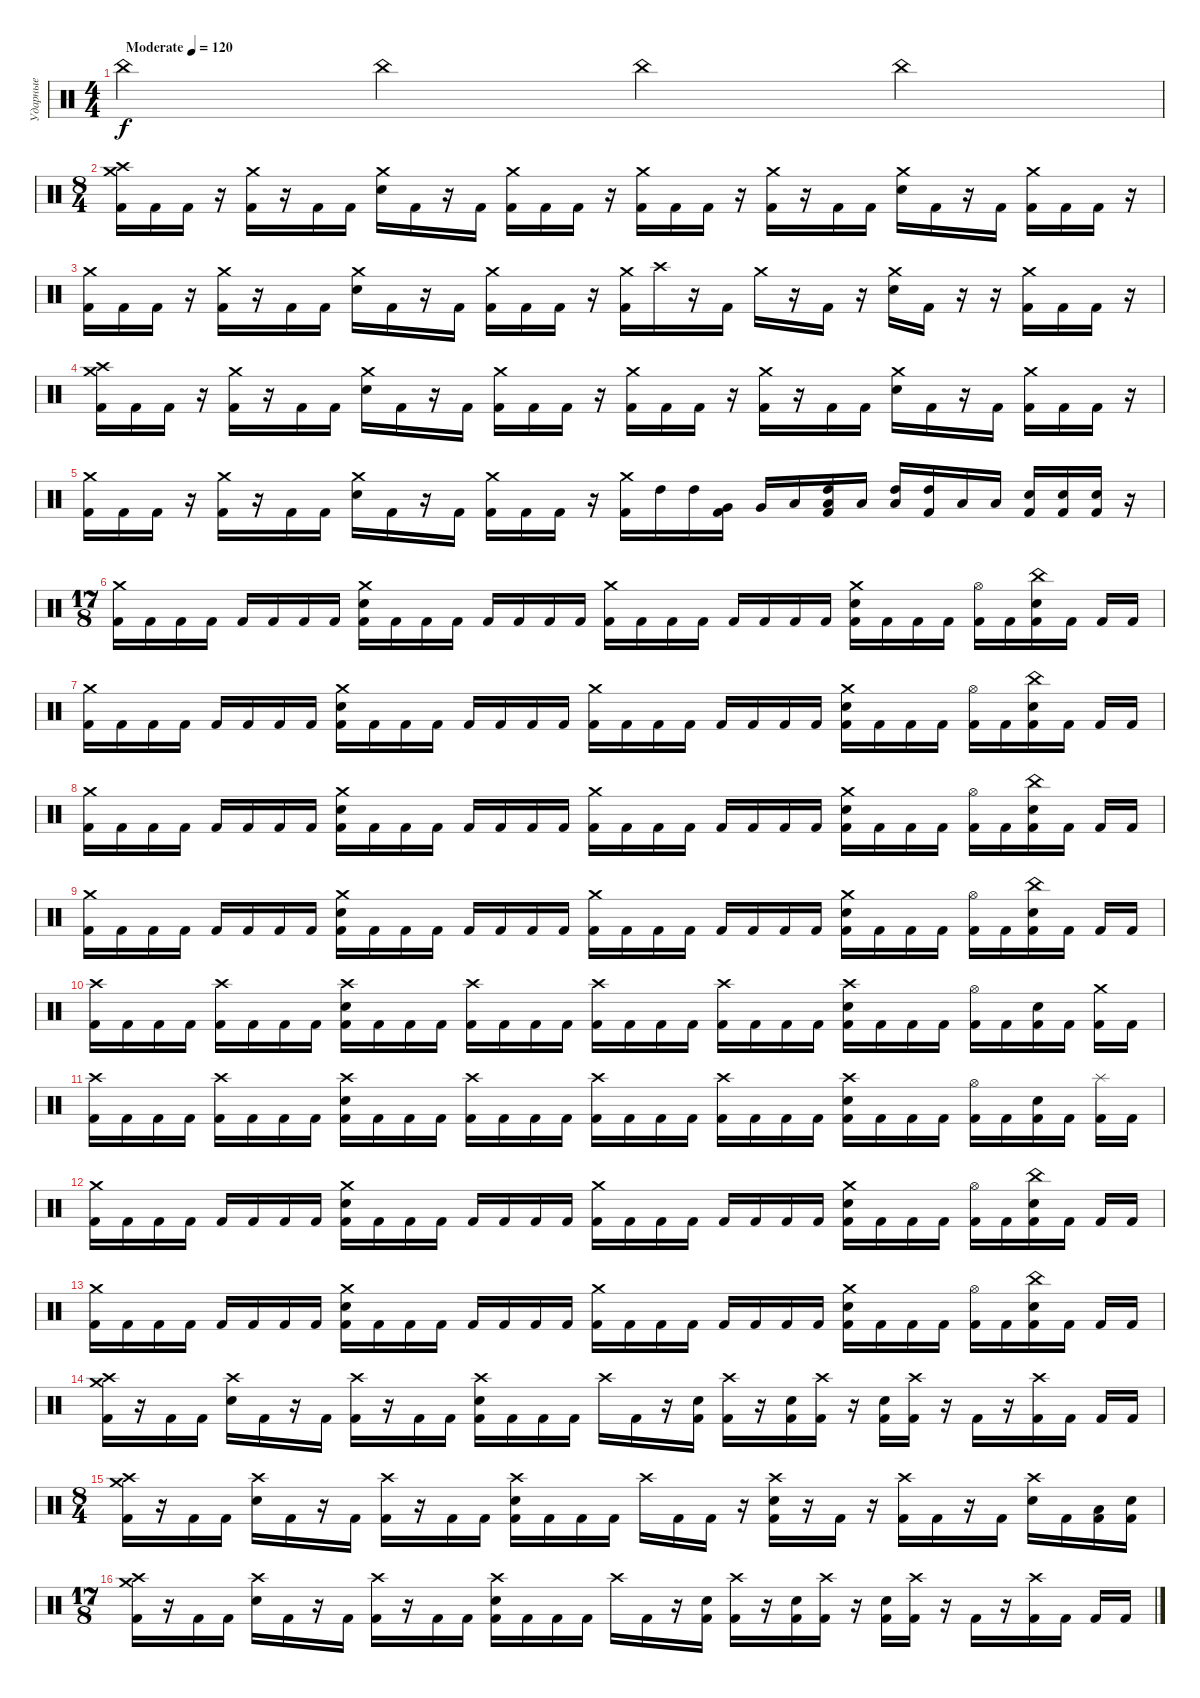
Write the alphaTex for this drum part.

\track ("Ударные" "Ударные") {instrument percussion}
\staff {score}
\articulation defaults
\ts (4 4)
\tempo (120 "Moderate")
\clef neutral
\ks c "China (hit)".4{dy f} "China (hit)".4 "China (hit)".4 "China (hit)".4
|
\ts (8 4)
("Crash medium (hit)" "Crash high (hit)" "Kick (hit) 2").16 "Kick (hit) 2".16 "Kick (hit) 2".16 r.16 ("Crash medium (hit)" "Kick (hit) 2").16 r.16 "Kick (hit) 2".16 "Kick (hit) 2".16 ("Crash medium (hit)" "Electric Snare (hit)").16 "Kick (hit) 2".16 r.16 "Kick (hit) 2".16 ("Crash medium (hit)" "Kick (hit) 2").16 "Kick (hit) 2".16 "Kick (hit) 2".16 r.16 ("Crash medium (hit)" "Kick (hit) 2").16 "Kick (hit) 2".16 "Kick (hit) 2".16 r.16 ("Crash medium (hit)" "Kick (hit) 2").16 r.16 "Kick (hit) 2".16 "Kick (hit) 2".16 ("Crash medium (hit)" "Electric Snare (hit)").16 "Kick (hit) 2".16 r.16 "Kick (hit) 2".16 ("Crash medium (hit)" "Kick (hit) 2").16 "Kick (hit) 2".16 "Kick (hit) 2".16 r.16 |
("Crash medium (hit)" "Kick (hit) 2").16 "Kick (hit) 2".16 "Kick (hit) 2".16 r.16 ("Crash medium (hit)" "Kick (hit) 2").16 r.16 "Kick (hit) 2".16 "Kick (hit) 2".16 ("Crash medium (hit)" "Electric Snare (hit)").16 "Kick (hit) 2".16 r.16 "Kick (hit) 2".16 ("Crash medium (hit)" "Kick (hit) 2").16 "Kick (hit) 2".16 "Kick (hit) 2".16 r.16 ("Crash medium (hit)" "Kick (hit) 2").16 "Crash high (hit)".16 r.16 "Kick (hit) 2".16 "Crash medium (hit)".16 r.16 "Kick (hit) 2".16 r.16 ("Crash medium (hit)" "Electric Snare (hit)").16 "Kick (hit) 2".16 r.16 r.16 ("Crash medium (hit)" "Kick (hit) 2").16 "Kick (hit) 2".16 "Kick (hit) 2".16 r.16 |
("Crash medium (hit)" "Crash high (hit)" "Kick (hit) 2").16 "Kick (hit) 2".16 "Kick (hit) 2".16 r.16 ("Crash medium (hit)" "Kick (hit) 2").16 r.16 "Kick (hit) 2".16 "Kick (hit) 2".16 ("Crash medium (hit)" "Electric Snare (hit)").16 "Kick (hit) 2".16 r.16 "Kick (hit) 2".16 ("Crash medium (hit)" "Kick (hit) 2").16 "Kick (hit) 2".16 "Kick (hit) 2".16 r.16 ("Crash medium (hit)" "Kick (hit) 2").16 "Kick (hit) 2".16 "Kick (hit) 2".16 r.16 ("Crash medium (hit)" "Kick (hit) 2").16 r.16 "Kick (hit) 2".16 "Kick (hit) 2".16 ("Crash medium (hit)" "Electric Snare (hit)").16 "Kick (hit) 2".16 r.16 "Kick (hit) 2".16 ("Crash medium (hit)" "Kick (hit) 2").16 "Kick (hit) 2".16 "Kick (hit) 2".16 r.16 |
("Crash medium (hit)" "Kick (hit) 2").16 "Kick (hit) 2".16 "Kick (hit) 2".16 r.16 ("Crash medium (hit)" "Kick (hit) 2").16 r.16 "Kick (hit) 2".16 "Kick (hit) 2".16 ("Crash medium (hit)" "Electric Snare (hit)").16 "Kick (hit) 2".16 r.16 "Kick (hit) 2".16 ("Crash medium (hit)" "Kick (hit) 2").16 "Kick (hit) 2".16 "Kick (hit) 2".16 r.16 ("Crash medium (hit)" "Kick (hit) 2").16 "High Tom (hit)".16 "High Tom (hit)".16 ("Very Low Tom (hit)" "Kick (hit) 2").16 "Very Low Tom (hit)".16 "Low Floor Tom (hit)".16 ("High Tom (hit)" "Low Floor Tom (hit)" "Kick (hit) 2").16 "Low Floor Tom (hit)".16 ("High Tom (hit)" "Low Floor Tom (hit)").16 ("High Tom (hit)" "Kick (hit) 2").16 "Low Tom (hit)".16 "Low Tom (hit)".16 ("Electric Snare (hit)" "Kick (hit) 2").16 ("Electric Snare (hit)" "Kick (hit) 2").16 ("Electric Snare (hit)" "Kick (hit) 2").16 r.16 |
\ts (17 8)
("Crash medium (hit)" "Kick (hit) 2").16 "Kick (hit) 2".16 "Kick (hit) 2".16 "Kick (hit) 2".16 "Kick (hit) 2".16 "Kick (hit) 2".16 "Kick (hit) 2".16 "Kick (hit) 2".16 ("Crash medium (hit)" "Electric Snare (hit)" "Kick (hit) 2").16 "Kick (hit) 2".16 "Kick (hit) 2".16 "Kick (hit) 2".16 "Kick (hit) 2".16 "Kick (hit) 2".16 "Kick (hit) 2".16 "Kick (hit) 2".16 ("Crash medium (hit)" "Kick (hit) 2").16 "Kick (hit) 2".16 "Kick (hit) 2".16 "Kick (hit) 2".16 "Kick (hit) 2".16 "Kick (hit) 2".16 "Kick (hit) 2".16 "Kick (hit) 2".16 ("Crash medium (hit)" "Electric Snare (hit)" "Kick (hit) 2").16 "Kick (hit) 2".16 "Kick (hit) 2".16 "Kick (hit) 2".16 ("Hi-Hat (open)" "Kick (hit) 2").16 "Kick (hit) 2".16 ("China (hit)" "Electric Snare (hit)" "Kick (hit) 2").16 "Kick (hit) 2".16 "Kick (hit) 2".16 "Kick (hit) 2".16 |
("Crash medium (hit)" "Kick (hit) 2").16 "Kick (hit) 2".16 "Kick (hit) 2".16 "Kick (hit) 2".16 "Kick (hit) 2".16 "Kick (hit) 2".16 "Kick (hit) 2".16 "Kick (hit) 2".16 ("Crash medium (hit)" "Electric Snare (hit)" "Kick (hit) 2").16 "Kick (hit) 2".16 "Kick (hit) 2".16 "Kick (hit) 2".16 "Kick (hit) 2".16 "Kick (hit) 2".16 "Kick (hit) 2".16 "Kick (hit) 2".16 ("Crash medium (hit)" "Kick (hit) 2").16 "Kick (hit) 2".16 "Kick (hit) 2".16 "Kick (hit) 2".16 "Kick (hit) 2".16 "Kick (hit) 2".16 "Kick (hit) 2".16 "Kick (hit) 2".16 ("Crash medium (hit)" "Electric Snare (hit)" "Kick (hit) 2").16 "Kick (hit) 2".16 "Kick (hit) 2".16 "Kick (hit) 2".16 ("Hi-Hat (open)" "Kick (hit) 2").16 "Kick (hit) 2".16 ("China (hit)" "Electric Snare (hit)" "Kick (hit) 2").16 "Kick (hit) 2".16 "Kick (hit) 2".16 "Kick (hit) 2".16 |
("Crash medium (hit)" "Kick (hit) 2").16 "Kick (hit) 2".16 "Kick (hit) 2".16 "Kick (hit) 2".16 "Kick (hit) 2".16 "Kick (hit) 2".16 "Kick (hit) 2".16 "Kick (hit) 2".16 ("Crash medium (hit)" "Electric Snare (hit)" "Kick (hit) 2").16 "Kick (hit) 2".16 "Kick (hit) 2".16 "Kick (hit) 2".16 "Kick (hit) 2".16 "Kick (hit) 2".16 "Kick (hit) 2".16 "Kick (hit) 2".16 ("Crash medium (hit)" "Kick (hit) 2").16 "Kick (hit) 2".16 "Kick (hit) 2".16 "Kick (hit) 2".16 "Kick (hit) 2".16 "Kick (hit) 2".16 "Kick (hit) 2".16 "Kick (hit) 2".16 ("Crash medium (hit)" "Electric Snare (hit)" "Kick (hit) 2").16 "Kick (hit) 2".16 "Kick (hit) 2".16 "Kick (hit) 2".16 ("Hi-Hat (open)" "Kick (hit) 2").16 "Kick (hit) 2".16 ("China (hit)" "Electric Snare (hit)" "Kick (hit) 2").16 "Kick (hit) 2".16 "Kick (hit) 2".16 "Kick (hit) 2".16 |
("Crash medium (hit)" "Kick (hit) 2").16 "Kick (hit) 2".16 "Kick (hit) 2".16 "Kick (hit) 2".16 "Kick (hit) 2".16 "Kick (hit) 2".16 "Kick (hit) 2".16 "Kick (hit) 2".16 ("Crash medium (hit)" "Electric Snare (hit)" "Kick (hit) 2").16 "Kick (hit) 2".16 "Kick (hit) 2".16 "Kick (hit) 2".16 "Kick (hit) 2".16 "Kick (hit) 2".16 "Kick (hit) 2".16 "Kick (hit) 2".16 ("Crash medium (hit)" "Kick (hit) 2").16 "Kick (hit) 2".16 "Kick (hit) 2".16 "Kick (hit) 2".16 "Kick (hit) 2".16 "Kick (hit) 2".16 "Kick (hit) 2".16 "Kick (hit) 2".16 ("Crash medium (hit)" "Electric Snare (hit)" "Kick (hit) 2").16 "Kick (hit) 2".16 "Kick (hit) 2".16 "Kick (hit) 2".16 ("Hi-Hat (open)" "Kick (hit) 2").16 "Kick (hit) 2".16 ("China (hit)" "Electric Snare (hit)" "Kick (hit) 2").16 "Kick (hit) 2".16 "Kick (hit) 2".16 "Kick (hit) 2".16 |
("Crash high (hit)" "Kick (hit) 2").16 "Kick (hit) 2".16 "Kick (hit) 2".16 "Kick (hit) 2".16 ("Crash high (hit)" "Kick (hit) 2").16 "Kick (hit) 2".16 "Kick (hit) 2".16 "Kick (hit) 2".16 ("Crash high (hit)" "Electric Snare (hit)" "Kick (hit) 2").16 "Kick (hit) 2".16 "Kick (hit) 2".16 "Kick (hit) 2".16 ("Crash high (hit)" "Kick (hit) 2").16 "Kick (hit) 2".16 "Kick (hit) 2".16 "Kick (hit) 2".16 ("Crash high (hit)" "Kick (hit) 2").16 "Kick (hit) 2".16 "Kick (hit) 2".16 "Kick (hit) 2".16 ("Crash high (hit)" "Kick (hit) 2").16 "Kick (hit) 2".16 "Kick (hit) 2".16 "Kick (hit) 2".16 ("Crash high (hit)" "Electric Snare (hit)" "Kick (hit) 2").16 "Kick (hit) 2".16 "Kick (hit) 2".16 "Kick (hit) 2".16 ("Hi-Hat (open)" "Kick (hit) 2").16 "Kick (hit) 2".16 ("Electric Snare (hit)" "Kick (hit) 2").16 "Kick (hit) 2".16 ("Crash medium (hit)" "Kick (hit) 2").16 "Kick (hit) 2".16 |
("Crash high (hit)" "Kick (hit) 2").16 "Kick (hit) 2".16 "Kick (hit) 2".16 "Kick (hit) 2".16 ("Crash high (hit)" "Kick (hit) 2").16 "Kick (hit) 2".16 "Kick (hit) 2".16 "Kick (hit) 2".16 ("Crash high (hit)" "Electric Snare (hit)" "Kick (hit) 2").16 "Kick (hit) 2".16 "Kick (hit) 2".16 "Kick (hit) 2".16 ("Crash high (hit)" "Kick (hit) 2").16 "Kick (hit) 2".16 "Kick (hit) 2".16 "Kick (hit) 2".16 ("Crash high (hit)" "Kick (hit) 2").16 "Kick (hit) 2".16 "Kick (hit) 2".16 "Kick (hit) 2".16 ("Crash high (hit)" "Kick (hit) 2").16 "Kick (hit) 2".16 "Kick (hit) 2".16 "Kick (hit) 2".16 ("Crash high (hit)" "Electric Snare (hit)" "Kick (hit) 2").16 "Kick (hit) 2".16 "Kick (hit) 2".16 "Kick (hit) 2".16 ("Hi-Hat (open)" "Kick (hit) 2").16 "Kick (hit) 2".16 ("Electric Snare (hit)" "Kick (hit) 2").16 "Kick (hit) 2".16 ("Splash (hit)" "Kick (hit) 2").16 "Kick (hit) 2".16 |
("Crash medium (hit)" "Kick (hit) 2").16 "Kick (hit) 2".16 "Kick (hit) 2".16 "Kick (hit) 2".16 "Kick (hit) 2".16 "Kick (hit) 2".16 "Kick (hit) 2".16 "Kick (hit) 2".16 ("Crash medium (hit)" "Electric Snare (hit)" "Kick (hit) 2").16 "Kick (hit) 2".16 "Kick (hit) 2".16 "Kick (hit) 2".16 "Kick (hit) 2".16 "Kick (hit) 2".16 "Kick (hit) 2".16 "Kick (hit) 2".16 ("Crash medium (hit)" "Kick (hit) 2").16 "Kick (hit) 2".16 "Kick (hit) 2".16 "Kick (hit) 2".16 "Kick (hit) 2".16 "Kick (hit) 2".16 "Kick (hit) 2".16 "Kick (hit) 2".16 ("Crash medium (hit)" "Electric Snare (hit)" "Kick (hit) 2").16 "Kick (hit) 2".16 "Kick (hit) 2".16 "Kick (hit) 2".16 ("Hi-Hat (open)" "Kick (hit) 2").16 "Kick (hit) 2".16 ("China (hit)" "Electric Snare (hit)" "Kick (hit) 2").16 "Kick (hit) 2".16 "Kick (hit) 2".16 "Kick (hit) 2".16 |
("Crash medium (hit)" "Kick (hit) 2").16 "Kick (hit) 2".16 "Kick (hit) 2".16 "Kick (hit) 2".16 "Kick (hit) 2".16 "Kick (hit) 2".16 "Kick (hit) 2".16 "Kick (hit) 2".16 ("Crash medium (hit)" "Electric Snare (hit)" "Kick (hit) 2").16 "Kick (hit) 2".16 "Kick (hit) 2".16 "Kick (hit) 2".16 "Kick (hit) 2".16 "Kick (hit) 2".16 "Kick (hit) 2".16 "Kick (hit) 2".16 ("Crash medium (hit)" "Kick (hit) 2").16 "Kick (hit) 2".16 "Kick (hit) 2".16 "Kick (hit) 2".16 "Kick (hit) 2".16 "Kick (hit) 2".16 "Kick (hit) 2".16 "Kick (hit) 2".16 ("Crash medium (hit)" "Electric Snare (hit)" "Kick (hit) 2").16 "Kick (hit) 2".16 "Kick (hit) 2".16 "Kick (hit) 2".16 ("Hi-Hat (open)" "Kick (hit) 2").16 "Kick (hit) 2".16 ("China (hit)" "Electric Snare (hit)" "Kick (hit) 2").16 "Kick (hit) 2".16 "Kick (hit) 2".16 "Kick (hit) 2".16 |
("Crash high (hit)" "Crash medium (hit)" "Kick (hit) 2").16 r.16 "Kick (hit) 2".16 "Kick (hit) 2".16 ("Crash high (hit)" "Electric Snare (hit)").16 "Kick (hit) 2".16 r.16 "Kick (hit) 2".16 ("Crash high (hit)" "Kick (hit) 2").16 r.16 "Kick (hit) 2".16 "Kick (hit) 2".16 ("Crash high (hit)" "Electric Snare (hit)" "Kick (hit) 2").16 "Kick (hit) 2".16 "Kick (hit) 2".16 "Kick (hit) 2".16 "Crash high (hit)".16 "Kick (hit) 2".16 r.16 ("Electric Snare (hit)" "Kick (hit) 2").16 ("Crash high (hit)" "Kick (hit) 2").16 r.16 ("Electric Snare (hit)" "Kick (hit) 2").16 ("Crash high (hit)" "Kick (hit) 2").16 r.16 ("Electric Snare (hit)" "Kick (hit) 2").16 ("Crash high (hit)" "Kick (hit) 2").16 r.16 "Kick (hit) 2".16 r.16 ("Crash high (hit)" "Kick (hit) 2").16 "Kick (hit) 2".16 "Kick (hit) 2".16 "Kick (hit) 2".16 |
\ts (8 4)
("Crash high (hit)" "Crash medium (hit)" "Kick (hit) 2").16 r.16 "Kick (hit) 2".16 "Kick (hit) 2".16 ("Crash high (hit)" "Electric Snare (hit)").16 "Kick (hit) 2".16 r.16 "Kick (hit) 2".16 ("Crash high (hit)" "Kick (hit) 2").16 r.16 "Kick (hit) 2".16 "Kick (hit) 2".16 ("Crash high (hit)" "Electric Snare (hit)" "Kick (hit) 2").16 "Kick (hit) 2".16 "Kick (hit) 2".16 "Kick (hit) 2".16 "Crash high (hit)".16 "Kick (hit) 2".16 "Kick (hit) 2".16 r.16 ("Crash high (hit)" "Electric Snare (hit)" "Kick (hit) 2").16 r.16 "Kick (hit) 2".16 r.16 ("Crash high (hit)" "Kick (hit) 2").16 "Kick (hit) 2".16 r.16 "Kick (hit) 2".16 ("Crash high (hit)" "Electric Snare (hit)").16 "Kick (hit) 2".16 ("Low Tom (hit)" "Kick (hit) 2").16 ("Electric Snare (hit)" "Kick (hit) 2").16 |
\ts (17 8)
("Crash high (hit)" "Crash medium (hit)" "Kick (hit) 2").16 r.16 "Kick (hit) 2".16 "Kick (hit) 2".16 ("Crash high (hit)" "Electric Snare (hit)").16 "Kick (hit) 2".16 r.16 "Kick (hit) 2".16 ("Crash high (hit)" "Kick (hit) 2").16 r.16 "Kick (hit) 2".16 "Kick (hit) 2".16 ("Crash high (hit)" "Electric Snare (hit)" "Kick (hit) 2").16 "Kick (hit) 2".16 "Kick (hit) 2".16 "Kick (hit) 2".16 "Crash high (hit)".16 "Kick (hit) 2".16 r.16 ("Electric Snare (hit)" "Kick (hit) 2").16 ("Crash high (hit)" "Kick (hit) 2").16 r.16 ("Electric Snare (hit)" "Kick (hit) 2").16 ("Crash high (hit)" "Kick (hit) 2").16 r.16 ("Electric Snare (hit)" "Kick (hit) 2").16 ("Crash high (hit)" "Kick (hit) 2").16 r.16 "Kick (hit) 2".16 r.16 ("Crash high (hit)" "Kick (hit) 2").16 "Kick (hit) 2".16 "Kick (hit) 2".16 "Kick (hit) 2".16
